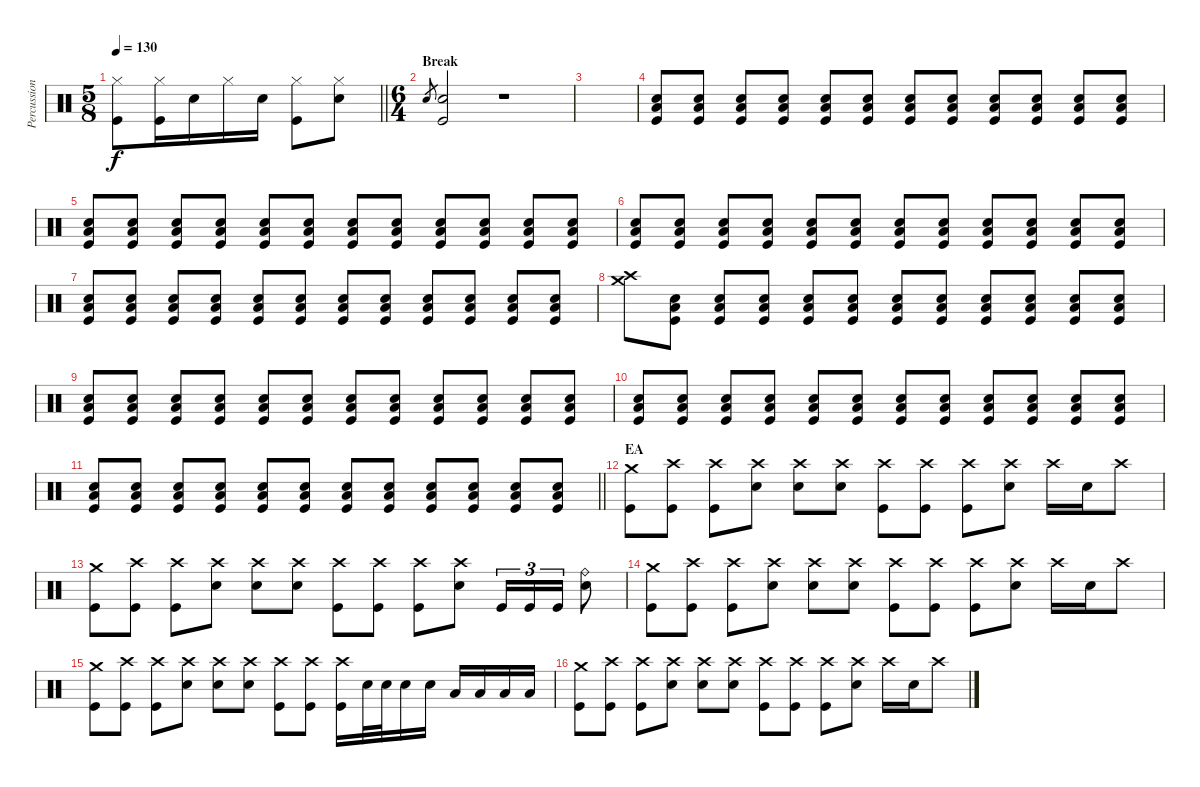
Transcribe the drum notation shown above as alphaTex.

\track ("Percussion" "Percussion") {instrument percussion}
\staff {score}
\articulation defaults
\ts (5 8)
\tempo 130
\clef neutral
\barLineRight lightlight
\ks c
("Hi-Hat (closed)" "Kick (hit)").8{dy f} ("Hi-Hat (closed)" "Kick (hit)").16 "Snare (hit) 2".16 "Hi-Hat (closed)".16 "Snare (hit) 2".16 ("Hi-Hat (closed)" "Kick (hit)").8 ("Hi-Hat (closed)" "Snare (hit) 2").8 |
\ts (6 4)
\section ("" "Break")
"Snare (hit) 2".8{gr} ("Snare (hit) 2" "Kick (hit)").2 r.1 |
|
("Low Floor Tom (hit)" "Snare (hit) 2" "Kick (hit)").8 ("Low Floor Tom (hit)" "Snare (hit) 2" "Kick (hit)").8 ("Low Floor Tom (hit)" "Snare (hit) 2" "Kick (hit)").8 ("Low Floor Tom (hit)" "Snare (hit) 2" "Kick (hit)").8 ("Low Floor Tom (hit)" "Snare (hit) 2" "Kick (hit)").8 ("Low Floor Tom (hit)" "Snare (hit) 2" "Kick (hit)").8 ("Low Floor Tom (hit)" "Snare (hit) 2" "Kick (hit)").8 ("Low Floor Tom (hit)" "Snare (hit) 2" "Kick (hit)").8 ("Low Floor Tom (hit)" "Snare (hit) 2" "Kick (hit)").8 ("Low Floor Tom (hit)" "Snare (hit) 2" "Kick (hit)").8 ("Low Floor Tom (hit)" "Snare (hit) 2" "Kick (hit)").8 ("Low Floor Tom (hit)" "Snare (hit) 2" "Kick (hit)").8 |
("Low Floor Tom (hit)" "Snare (hit) 2" "Kick (hit)").8 ("Low Floor Tom (hit)" "Snare (hit) 2" "Kick (hit)").8 ("Low Floor Tom (hit)" "Snare (hit) 2" "Kick (hit)").8 ("Low Floor Tom (hit)" "Snare (hit) 2" "Kick (hit)").8 ("Low Floor Tom (hit)" "Snare (hit) 2" "Kick (hit)").8 ("Low Floor Tom (hit)" "Snare (hit) 2" "Kick (hit)").8 ("Low Floor Tom (hit)" "Snare (hit) 2" "Kick (hit)").8 ("Low Floor Tom (hit)" "Snare (hit) 2" "Kick (hit)").8 ("Low Floor Tom (hit)" "Snare (hit) 2" "Kick (hit)").8 ("Low Floor Tom (hit)" "Snare (hit) 2" "Kick (hit)").8 ("Low Floor Tom (hit)" "Snare (hit) 2" "Kick (hit)").8 ("Low Floor Tom (hit)" "Snare (hit) 2" "Kick (hit)").8 |
("Low Floor Tom (hit)" "Snare (hit) 2" "Kick (hit)").8 ("Low Floor Tom (hit)" "Snare (hit) 2" "Kick (hit)").8 ("Low Floor Tom (hit)" "Snare (hit) 2" "Kick (hit)").8 ("Low Floor Tom (hit)" "Snare (hit) 2" "Kick (hit)").8 ("Low Floor Tom (hit)" "Snare (hit) 2" "Kick (hit)").8 ("Low Floor Tom (hit)" "Snare (hit) 2" "Kick (hit)").8 ("Low Floor Tom (hit)" "Snare (hit) 2" "Kick (hit)").8 ("Low Floor Tom (hit)" "Snare (hit) 2" "Kick (hit)").8 ("Low Floor Tom (hit)" "Snare (hit) 2" "Kick (hit)").8 ("Low Floor Tom (hit)" "Snare (hit) 2" "Kick (hit)").8 ("Low Floor Tom (hit)" "Snare (hit) 2" "Kick (hit)").8 ("Low Floor Tom (hit)" "Snare (hit) 2" "Kick (hit)").8 |
("Low Floor Tom (hit)" "Snare (hit) 2" "Kick (hit)").8 ("Low Floor Tom (hit)" "Snare (hit) 2" "Kick (hit)").8 ("Low Floor Tom (hit)" "Snare (hit) 2" "Kick (hit)").8 ("Low Floor Tom (hit)" "Snare (hit) 2" "Kick (hit)").8 ("Low Floor Tom (hit)" "Snare (hit) 2" "Kick (hit)").8 ("Low Floor Tom (hit)" "Snare (hit) 2" "Kick (hit)").8 ("Low Floor Tom (hit)" "Snare (hit) 2" "Kick (hit)").8 ("Low Floor Tom (hit)" "Snare (hit) 2" "Kick (hit)").8 ("Low Floor Tom (hit)" "Snare (hit) 2" "Kick (hit)").8 ("Low Floor Tom (hit)" "Snare (hit) 2" "Kick (hit)").8 ("Low Floor Tom (hit)" "Snare (hit) 2" "Kick (hit)").8 ("Low Floor Tom (hit)" "Snare (hit) 2" "Kick (hit)").8 |
("Crash medium (hit)" "Crash high (hit)").8 ("Low Floor Tom (hit)" "Snare (hit) 2" "Kick (hit)").8 ("Low Floor Tom (hit)" "Snare (hit) 2" "Kick (hit)").8 ("Low Floor Tom (hit)" "Snare (hit) 2" "Kick (hit)").8 ("Low Floor Tom (hit)" "Snare (hit) 2" "Kick (hit)").8 ("Low Floor Tom (hit)" "Snare (hit) 2" "Kick (hit)").8 ("Low Floor Tom (hit)" "Snare (hit) 2" "Kick (hit)").8 ("Low Floor Tom (hit)" "Snare (hit) 2" "Kick (hit)").8 ("Low Floor Tom (hit)" "Snare (hit) 2" "Kick (hit)").8 ("Low Floor Tom (hit)" "Snare (hit) 2" "Kick (hit)").8 ("Low Floor Tom (hit)" "Snare (hit) 2" "Kick (hit)").8 ("Low Floor Tom (hit)" "Snare (hit) 2" "Kick (hit)").8 |
("Low Floor Tom (hit)" "Snare (hit) 2" "Kick (hit)").8 ("Low Floor Tom (hit)" "Snare (hit) 2" "Kick (hit)").8 ("Low Floor Tom (hit)" "Snare (hit) 2" "Kick (hit)").8 ("Low Floor Tom (hit)" "Snare (hit) 2" "Kick (hit)").8 ("Low Floor Tom (hit)" "Snare (hit) 2" "Kick (hit)").8 ("Low Floor Tom (hit)" "Snare (hit) 2" "Kick (hit)").8 ("Low Floor Tom (hit)" "Snare (hit) 2" "Kick (hit)").8 ("Low Floor Tom (hit)" "Snare (hit) 2" "Kick (hit)").8 ("Low Floor Tom (hit)" "Snare (hit) 2" "Kick (hit)").8 ("Low Floor Tom (hit)" "Snare (hit) 2" "Kick (hit)").8 ("Low Floor Tom (hit)" "Snare (hit) 2" "Kick (hit)").8 ("Low Floor Tom (hit)" "Snare (hit) 2" "Kick (hit)").8 |
("Low Floor Tom (hit)" "Snare (hit) 2" "Kick (hit)").8 ("Low Floor Tom (hit)" "Snare (hit) 2" "Kick (hit)").8 ("Low Floor Tom (hit)" "Snare (hit) 2" "Kick (hit)").8 ("Low Floor Tom (hit)" "Snare (hit) 2" "Kick (hit)").8 ("Low Floor Tom (hit)" "Snare (hit) 2" "Kick (hit)").8 ("Low Floor Tom (hit)" "Snare (hit) 2" "Kick (hit)").8 ("Low Floor Tom (hit)" "Snare (hit) 2" "Kick (hit)").8 ("Low Floor Tom (hit)" "Snare (hit) 2" "Kick (hit)").8 ("Low Floor Tom (hit)" "Snare (hit) 2" "Kick (hit)").8 ("Low Floor Tom (hit)" "Snare (hit) 2" "Kick (hit)").8 ("Low Floor Tom (hit)" "Snare (hit) 2" "Kick (hit)").8 ("Low Floor Tom (hit)" "Snare (hit) 2" "Kick (hit)").8 |
\barLineRight lightlight
("Low Floor Tom (hit)" "Snare (hit) 2" "Kick (hit)").8 ("Low Floor Tom (hit)" "Snare (hit) 2" "Kick (hit)").8 ("Low Floor Tom (hit)" "Snare (hit) 2" "Kick (hit)").8 ("Low Floor Tom (hit)" "Snare (hit) 2" "Kick (hit)").8 ("Low Floor Tom (hit)" "Snare (hit) 2" "Kick (hit)").8 ("Low Floor Tom (hit)" "Snare (hit) 2" "Kick (hit)").8 ("Low Floor Tom (hit)" "Snare (hit) 2" "Kick (hit)").8 ("Low Floor Tom (hit)" "Snare (hit) 2" "Kick (hit)").8 ("Low Floor Tom (hit)" "Snare (hit) 2" "Kick (hit)").8 ("Low Floor Tom (hit)" "Snare (hit) 2" "Kick (hit)").8 ("Low Floor Tom (hit)" "Snare (hit) 2" "Kick (hit)").8 ("Low Floor Tom (hit)" "Snare (hit) 2" "Kick (hit)").8 |
\section ("" "EA")
("Crash medium (hit)" "Kick (hit)").8 ("Crash high (hit)" "Kick (hit)").8 ("Crash high (hit)" "Kick (hit)").8 ("Crash high (hit)" "Snare (hit) 2").8 ("Crash high (hit)" "Snare (hit) 2").8 ("Crash high (hit)" "Snare (hit) 2").8 ("Crash high (hit)" "Kick (hit)").8 ("Crash high (hit)" "Kick (hit)").8 ("Crash high (hit)" "Kick (hit)").8 ("Crash high (hit)" "Snare (hit) 2").8 "Crash high (hit)".16 "Snare (hit) 2".16 "Crash high (hit)".8 |
("Crash medium (hit)" "Kick (hit)").8 ("Crash high (hit)" "Kick (hit)").8 ("Crash high (hit)" "Kick (hit)").8 ("Crash high (hit)" "Snare (hit) 2").8 ("Crash high (hit)" "Snare (hit) 2").8 ("Crash high (hit)" "Snare (hit) 2").8 ("Crash high (hit)" "Kick (hit)").8 ("Crash high (hit)" "Kick (hit)").8 ("Crash high (hit)" "Kick (hit)").8 ("Crash high (hit)" "Snare (hit) 2").8 "Kick (hit)".16{tu (3 2)} "Kick (hit)".16{tu (3 2)} "Kick (hit)".16{tu (3 2)} ("Ride (bell)" "Snare (hit) 2").8 |
("Crash medium (hit)" "Kick (hit)").8 ("Crash high (hit)" "Kick (hit)").8 ("Crash high (hit)" "Kick (hit)").8 ("Crash high (hit)" "Snare (hit) 2").8 ("Crash high (hit)" "Snare (hit) 2").8 ("Crash high (hit)" "Snare (hit) 2").8 ("Crash high (hit)" "Kick (hit)").8 ("Crash high (hit)" "Kick (hit)").8 ("Crash high (hit)" "Kick (hit)").8 ("Crash high (hit)" "Snare (hit) 2").8 "Crash high (hit)".16 "Snare (hit) 2".16 "Crash high (hit)".8 |
("Crash medium (hit)" "Kick (hit)").8 ("Crash high (hit)" "Kick (hit)").8 ("Crash high (hit)" "Kick (hit)").8 ("Crash high (hit)" "Snare (hit) 2").8 ("Crash high (hit)" "Snare (hit) 2").8 ("Crash high (hit)" "Snare (hit) 2").8 ("Crash high (hit)" "Kick (hit)").8 ("Crash high (hit)" "Kick (hit)").8 ("Crash high (hit)" "Kick (hit)").16 "Snare (hit) 2".32 "Snare (hit) 2".32 "Snare (hit) 2".16 "Snare (hit) 2".16 "Low Tom (hit)".16 "Low Tom (hit)".16 "Low Floor Tom (hit)".16 "Low Floor Tom (hit)".16 |
("Crash medium (hit)" "Kick (hit)").8 ("Crash high (hit)" "Kick (hit)").8 ("Crash high (hit)" "Kick (hit)").8 ("Crash high (hit)" "Snare (hit) 2").8 ("Crash high (hit)" "Snare (hit) 2").8 ("Crash high (hit)" "Snare (hit) 2").8 ("Crash high (hit)" "Kick (hit)").8 ("Crash high (hit)" "Kick (hit)").8 ("Crash high (hit)" "Kick (hit)").8 ("Crash high (hit)" "Snare (hit) 2").8 "Crash high (hit)".16 "Snare (hit) 2".16 "Crash high (hit)".8
